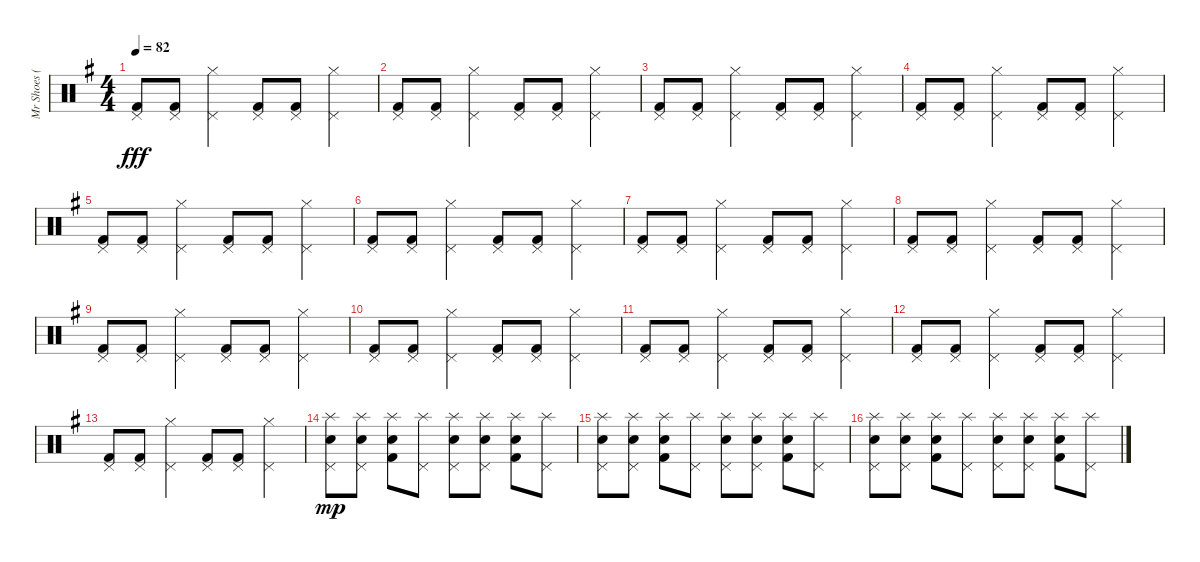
\track ("Mr Shoes (batterie)" "Mr Shoes (") {instrument percussion}
\staff {score}
\articulation defaults
\ts (4 4)
\tempo 82
\clef neutral
\ks g
("Kick (hit) 2" "Pedal Hi-Hat (hit)").8{dy fff} ("Kick (hit) 2" "Pedal Hi-Hat (hit)").8 ("Pedal Hi-Hat (hit)" "Hi-Hat (closed)").4 ("Kick (hit) 2" "Pedal Hi-Hat (hit)").8 ("Kick (hit) 2" "Pedal Hi-Hat (hit)").8 ("Pedal Hi-Hat (hit)" "Hi-Hat (closed)").4 |
("Kick (hit) 2" "Pedal Hi-Hat (hit)").8 ("Kick (hit) 2" "Pedal Hi-Hat (hit)").8 ("Pedal Hi-Hat (hit)" "Hi-Hat (closed)").4 ("Kick (hit) 2" "Pedal Hi-Hat (hit)").8 ("Kick (hit) 2" "Pedal Hi-Hat (hit)").8 ("Pedal Hi-Hat (hit)" "Hi-Hat (closed)").4 |
("Kick (hit) 2" "Pedal Hi-Hat (hit)").8 ("Kick (hit) 2" "Pedal Hi-Hat (hit)").8 ("Pedal Hi-Hat (hit)" "Hi-Hat (closed)").4 ("Kick (hit) 2" "Pedal Hi-Hat (hit)").8 ("Kick (hit) 2" "Pedal Hi-Hat (hit)").8 ("Pedal Hi-Hat (hit)" "Hi-Hat (closed)").4 |
("Kick (hit) 2" "Pedal Hi-Hat (hit)").8 ("Kick (hit) 2" "Pedal Hi-Hat (hit)").8 ("Pedal Hi-Hat (hit)" "Hi-Hat (closed)").4 ("Kick (hit) 2" "Pedal Hi-Hat (hit)").8 ("Kick (hit) 2" "Pedal Hi-Hat (hit)").8 ("Pedal Hi-Hat (hit)" "Hi-Hat (closed)").4 |
("Kick (hit) 2" "Pedal Hi-Hat (hit)").8 ("Kick (hit) 2" "Pedal Hi-Hat (hit)").8 ("Pedal Hi-Hat (hit)" "Hi-Hat (closed)").4 ("Kick (hit) 2" "Pedal Hi-Hat (hit)").8 ("Kick (hit) 2" "Pedal Hi-Hat (hit)").8 ("Pedal Hi-Hat (hit)" "Hi-Hat (closed)").4 |
("Kick (hit) 2" "Pedal Hi-Hat (hit)").8 ("Kick (hit) 2" "Pedal Hi-Hat (hit)").8 ("Pedal Hi-Hat (hit)" "Hi-Hat (closed)").4 ("Kick (hit) 2" "Pedal Hi-Hat (hit)").8 ("Kick (hit) 2" "Pedal Hi-Hat (hit)").8 ("Pedal Hi-Hat (hit)" "Hi-Hat (closed)").4 |
("Kick (hit) 2" "Pedal Hi-Hat (hit)").8 ("Kick (hit) 2" "Pedal Hi-Hat (hit)").8 ("Pedal Hi-Hat (hit)" "Hi-Hat (closed)").4 ("Kick (hit) 2" "Pedal Hi-Hat (hit)").8 ("Kick (hit) 2" "Pedal Hi-Hat (hit)").8 ("Pedal Hi-Hat (hit)" "Hi-Hat (closed)").4 |
("Kick (hit) 2" "Pedal Hi-Hat (hit)").8 ("Kick (hit) 2" "Pedal Hi-Hat (hit)").8 ("Pedal Hi-Hat (hit)" "Hi-Hat (closed)").4 ("Kick (hit) 2" "Pedal Hi-Hat (hit)").8 ("Kick (hit) 2" "Pedal Hi-Hat (hit)").8 ("Pedal Hi-Hat (hit)" "Hi-Hat (closed)").4 |
("Kick (hit) 2" "Pedal Hi-Hat (hit)").8 ("Kick (hit) 2" "Pedal Hi-Hat (hit)").8 ("Pedal Hi-Hat (hit)" "Hi-Hat (closed)").4 ("Kick (hit) 2" "Pedal Hi-Hat (hit)").8 ("Kick (hit) 2" "Pedal Hi-Hat (hit)").8 ("Pedal Hi-Hat (hit)" "Hi-Hat (closed)").4 |
("Kick (hit) 2" "Pedal Hi-Hat (hit)").8 ("Kick (hit) 2" "Pedal Hi-Hat (hit)").8 ("Pedal Hi-Hat (hit)" "Hi-Hat (closed)").4 ("Kick (hit) 2" "Pedal Hi-Hat (hit)").8 ("Kick (hit) 2" "Pedal Hi-Hat (hit)").8 ("Pedal Hi-Hat (hit)" "Hi-Hat (closed)").4 |
("Kick (hit) 2" "Pedal Hi-Hat (hit)").8 ("Kick (hit) 2" "Pedal Hi-Hat (hit)").8 ("Pedal Hi-Hat (hit)" "Hi-Hat (closed)").4 ("Kick (hit) 2" "Pedal Hi-Hat (hit)").8 ("Kick (hit) 2" "Pedal Hi-Hat (hit)").8 ("Pedal Hi-Hat (hit)" "Hi-Hat (closed)").4 |
("Kick (hit) 2" "Pedal Hi-Hat (hit)").8 ("Kick (hit) 2" "Pedal Hi-Hat (hit)").8 ("Pedal Hi-Hat (hit)" "Hi-Hat (closed)").4 ("Kick (hit) 2" "Pedal Hi-Hat (hit)").8 ("Kick (hit) 2" "Pedal Hi-Hat (hit)").8 ("Pedal Hi-Hat (hit)" "Hi-Hat (closed)").4 |
("Kick (hit) 2" "Pedal Hi-Hat (hit)").8 ("Kick (hit) 2" "Pedal Hi-Hat (hit)").8 ("Pedal Hi-Hat (hit)" "Hi-Hat (closed)").4 ("Kick (hit) 2" "Pedal Hi-Hat (hit)").8 ("Kick (hit) 2" "Pedal Hi-Hat (hit)").8 ("Pedal Hi-Hat (hit)" "Hi-Hat (closed)").4 |
("Electric Snare (hit)" "Pedal Hi-Hat (hit)" "Splash (hit)").8{dy mp} ("Electric Snare (hit)" "Pedal Hi-Hat (hit)" "Splash (hit)").8 ("Kick (hit) 2" "Snare (hit) 2" "Splash (hit)").8 ("Pedal Hi-Hat (hit)" "Splash (hit)").8 ("Electric Snare (hit)" "Pedal Hi-Hat (hit)" "Splash (hit)").8 ("Electric Snare (hit)" "Pedal Hi-Hat (hit)" "Splash (hit)").8 ("Kick (hit) 2" "Snare (hit) 2" "Splash (hit)").8 ("Pedal Hi-Hat (hit)" "Splash (hit)").8 |
("Electric Snare (hit)" "Pedal Hi-Hat (hit)" "Splash (hit)").8 ("Electric Snare (hit)" "Pedal Hi-Hat (hit)" "Splash (hit)").8 ("Kick (hit) 2" "Snare (hit) 2" "Splash (hit)").8 ("Pedal Hi-Hat (hit)" "Splash (hit)").8 ("Electric Snare (hit)" "Pedal Hi-Hat (hit)" "Splash (hit)").8 ("Electric Snare (hit)" "Pedal Hi-Hat (hit)" "Splash (hit)").8 ("Kick (hit) 2" "Snare (hit) 2" "Splash (hit)").8 ("Pedal Hi-Hat (hit)" "Splash (hit)").8 |
("Electric Snare (hit)" "Pedal Hi-Hat (hit)" "Splash (hit)").8 ("Electric Snare (hit)" "Pedal Hi-Hat (hit)" "Splash (hit)").8 ("Kick (hit) 2" "Snare (hit) 2" "Splash (hit)").8 ("Pedal Hi-Hat (hit)" "Splash (hit)").8 ("Electric Snare (hit)" "Pedal Hi-Hat (hit)" "Splash (hit)").8 ("Electric Snare (hit)" "Pedal Hi-Hat (hit)" "Splash (hit)").8 ("Kick (hit) 2" "Snare (hit) 2" "Splash (hit)").8 ("Pedal Hi-Hat (hit)" "Splash (hit)").8
